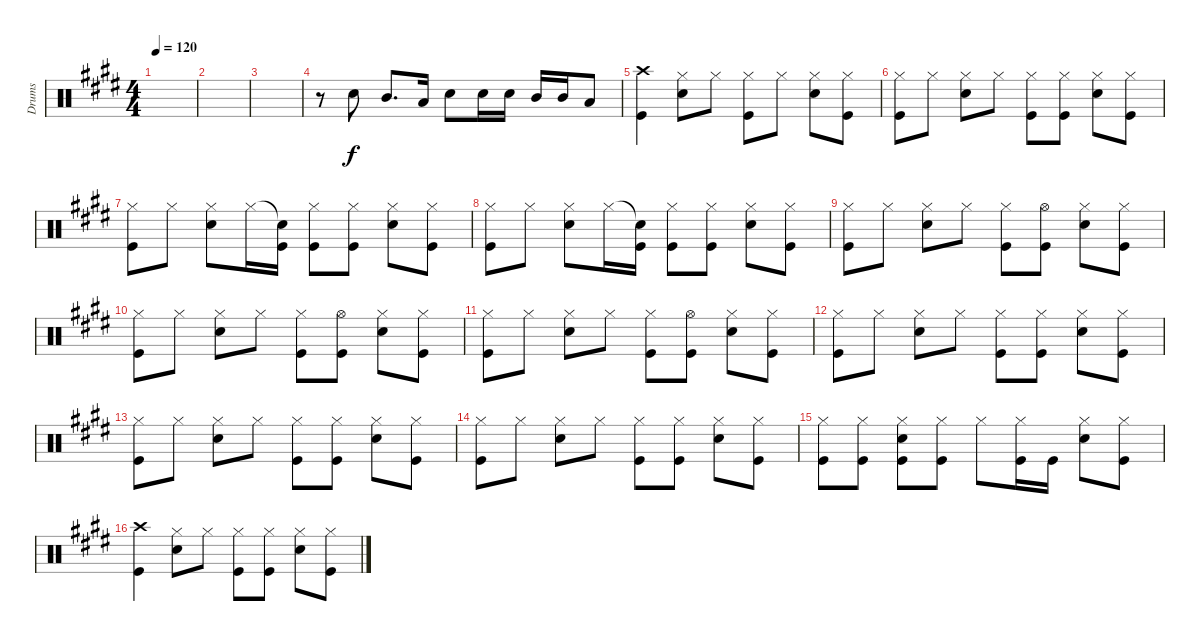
\track ("Drums" "Drums") {instrument percussion}
\staff {score}
\articulation defaults
\ts (4 4)
\tempo 120
\clef neutral
\ks e
|
|
|
r.8 "Snare (hit) 2".8 "Mid Tom (hit)".8{d} "Low Tom (hit)".16 "Snare (hit) 2".8 "Snare (hit) 2".16 "Snare (hit) 2".16 "Mid Tom (hit)".16 "Mid Tom (hit)".16 "Low Tom (hit)".8 |
("Crash high (hit)" "Kick (hit)").4 ("Hi-Hat (closed)" "Snare (hit) 2").8 "Hi-Hat (closed)".8 ("Hi-Hat (closed)" "Kick (hit)").8 "Hi-Hat (closed)".8 ("Hi-Hat (closed)" "Snare (hit) 2").8 ("Hi-Hat (closed)" "Kick (hit)").8 |
("Hi-Hat (closed)" "Kick (hit)").8 "Hi-Hat (closed)".8 ("Hi-Hat (closed)" "Snare (hit) 2").8 "Hi-Hat (closed)".8 ("Hi-Hat (closed)" "Kick (hit)").8 ("Hi-Hat (closed)" "Kick (hit)").8 ("Hi-Hat (closed)" "Snare (hit) 2").8 ("Hi-Hat (closed)" "Kick (hit)").8 |
("Hi-Hat (closed)" "Kick (hit)").8 "Hi-Hat (closed)".8 ("Hi-Hat (closed)" "Snare (hit) 2").8 "Hi-Hat (closed)".16 ("Snare (hit)"{t} "Kick (hit)").16 ("Hi-Hat (closed)" "Kick (hit)").8 ("Hi-Hat (closed)" "Kick (hit)").8 ("Hi-Hat (closed)" "Snare (hit) 2").8 ("Hi-Hat (closed)" "Kick (hit)").8 |
("Hi-Hat (closed)" "Kick (hit)").8 "Hi-Hat (closed)".8 ("Hi-Hat (closed)" "Snare (hit) 2").8 "Hi-Hat (closed)".16 ("Snare (hit)"{t} "Kick (hit)").16 ("Hi-Hat (closed)" "Kick (hit)").8 ("Hi-Hat (closed)" "Kick (hit)").8 ("Hi-Hat (closed)" "Snare (hit) 2").8 ("Hi-Hat (closed)" "Kick (hit)").8 |
("Hi-Hat (closed)" "Kick (hit)").8 "Hi-Hat (closed)".8 ("Hi-Hat (closed)" "Snare (hit) 2").8 "Hi-Hat (closed)".8 ("Hi-Hat (closed)" "Kick (hit)").8 ("Hi-Hat (open)" "Kick (hit)").8 ("Hi-Hat (closed)" "Snare (hit) 2").8 ("Hi-Hat (closed)" "Kick (hit)").8 |
("Hi-Hat (closed)" "Kick (hit)").8 "Hi-Hat (closed)".8 ("Hi-Hat (closed)" "Snare (hit) 2").8 "Hi-Hat (closed)".8 ("Hi-Hat (closed)" "Kick (hit)").8 ("Hi-Hat (open)" "Kick (hit)").8 ("Hi-Hat (closed)" "Snare (hit) 2").8 ("Hi-Hat (closed)" "Kick (hit)").8 |
("Hi-Hat (closed)" "Kick (hit)").8 "Hi-Hat (closed)".8 ("Hi-Hat (closed)" "Snare (hit) 2").8 "Hi-Hat (closed)".8 ("Hi-Hat (closed)" "Kick (hit)").8 ("Hi-Hat (open)" "Kick (hit)").8 ("Hi-Hat (closed)" "Snare (hit) 2").8 ("Hi-Hat (closed)" "Kick (hit)").8 |
("Hi-Hat (closed)" "Kick (hit)").8 "Hi-Hat (closed)".8 ("Hi-Hat (closed)" "Snare (hit) 2").8 "Hi-Hat (closed)".8 ("Hi-Hat (closed)" "Kick (hit)").8 ("Hi-Hat (closed)" "Kick (hit)").8 ("Hi-Hat (closed)" "Snare (hit) 2").8 ("Hi-Hat (closed)" "Kick (hit)").8 |
("Hi-Hat (closed)" "Kick (hit)").8 "Hi-Hat (closed)".8 ("Hi-Hat (closed)" "Snare (hit) 2").8 "Hi-Hat (closed)".8 ("Hi-Hat (closed)" "Kick (hit)").8 ("Hi-Hat (closed)" "Kick (hit)").8 ("Hi-Hat (closed)" "Snare (hit) 2").8 ("Hi-Hat (closed)" "Kick (hit)").8 |
("Hi-Hat (closed)" "Kick (hit)").8 "Hi-Hat (closed)".8 ("Hi-Hat (closed)" "Snare (hit) 2").8 "Hi-Hat (closed)".8 ("Hi-Hat (closed)" "Kick (hit)").8 ("Hi-Hat (closed)" "Kick (hit)").8 ("Hi-Hat (closed)" "Snare (hit) 2").8 ("Hi-Hat (closed)" "Kick (hit)").8 |
("Hi-Hat (closed)" "Kick (hit)").8 ("Hi-Hat (closed)" "Kick (hit)").8 ("Hi-Hat (closed)" "Snare (hit) 2" "Kick (hit)").8 ("Hi-Hat (closed)" "Kick (hit)").8 "Hi-Hat (closed)".8 ("Hi-Hat (closed)" "Kick (hit)").16 "Kick (hit)".16 ("Hi-Hat (closed)" "Snare (hit) 2").8 ("Hi-Hat (closed)" "Kick (hit)").8 |
("Crash high (hit)" "Kick (hit)").4 ("Hi-Hat (closed)" "Snare (hit) 2").8 "Hi-Hat (closed)".8 ("Hi-Hat (closed)" "Kick (hit)").8 ("Hi-Hat (closed)" "Kick (hit)").8 ("Hi-Hat (closed)" "Snare (hit) 2").8 ("Hi-Hat (closed)" "Kick (hit)").8
